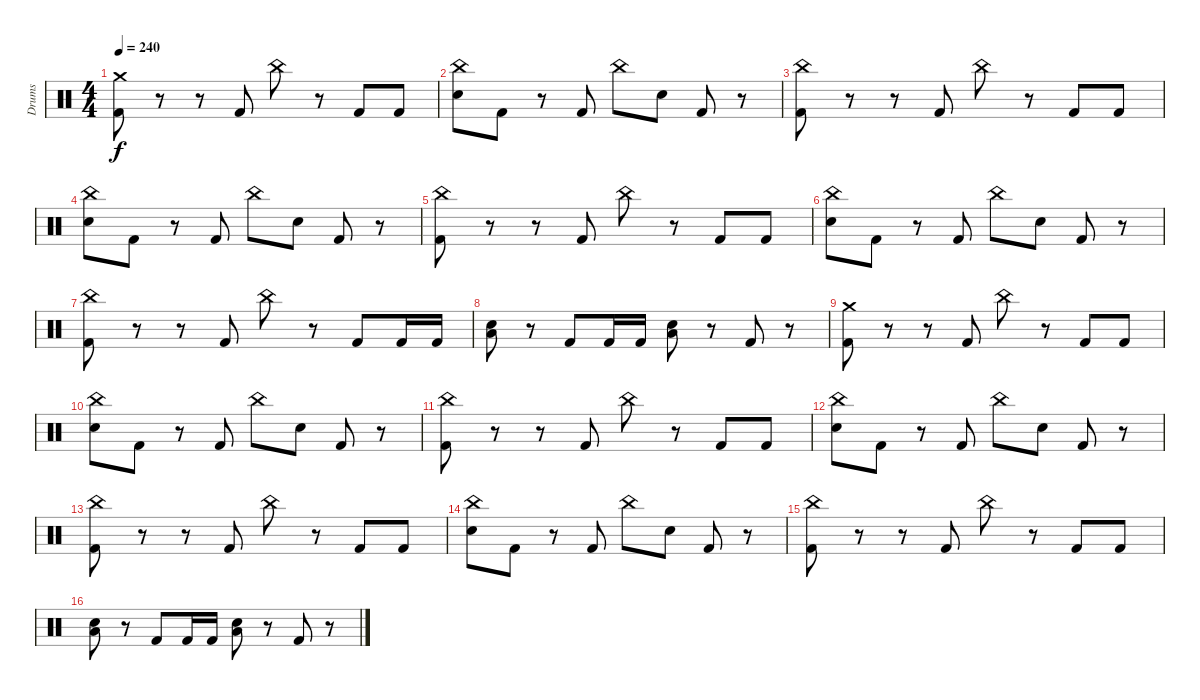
\track ("Drums" "Drums") {instrument percussion}
\staff {score}
\articulation defaults
\ts (4 4)
\tempo 240
\clef neutral
\ks c
("Kick (hit) 2" "Crash medium (hit)").8{dy f} r.8 r.8 "Kick (hit) 2".8 "China (hit)".8 r.8 "Kick (hit) 2".8 "Kick (hit) 2".8 |
("Electric Snare (hit)" "China (hit)").8 "Kick (hit) 2".8 r.8 "Kick (hit) 2".8 "China (hit)".8 "Electric Snare (hit)".8 "Kick (hit) 2".8 r.8 |
("Kick (hit) 2" "China (hit)").8 r.8 r.8 "Kick (hit) 2".8 "China (hit)".8 r.8 "Kick (hit) 2".8 "Kick (hit) 2".8 |
("Electric Snare (hit)" "China (hit)").8 "Kick (hit) 2".8 r.8 "Kick (hit) 2".8 "China (hit)".8 "Electric Snare (hit)".8 "Kick (hit) 2".8 r.8 |
("Kick (hit) 2" "China (hit)").8 r.8 r.8 "Kick (hit) 2".8 "China (hit)".8 r.8 "Kick (hit) 2".8 "Kick (hit) 2".8 |
("Electric Snare (hit)" "China (hit)").8 "Kick (hit) 2".8 r.8 "Kick (hit) 2".8 "China (hit)".8 "Electric Snare (hit)".8 "Kick (hit) 2".8 r.8 |
("Kick (hit) 2" "China (hit)").8 r.8 r.8 "Kick (hit) 2".8 "China (hit)".8 r.8 "Kick (hit) 2".8 "Kick (hit) 2".16 "Kick (hit) 2".16 |
("Electric Snare (hit)" "Low Tom (hit)").8 r.8 "Kick (hit) 2".8 "Kick (hit) 2".16 "Kick (hit) 2".16 ("Electric Snare (hit)" "Low Tom (hit)").8 r.8 "Kick (hit) 2".8 r.8 |
("Kick (hit) 2" "Crash medium (hit)").8 r.8 r.8 "Kick (hit) 2".8 "China (hit)".8 r.8 "Kick (hit) 2".8 "Kick (hit) 2".8 |
("Electric Snare (hit)" "China (hit)").8 "Kick (hit) 2".8 r.8 "Kick (hit) 2".8 "China (hit)".8 "Electric Snare (hit)".8 "Kick (hit) 2".8 r.8 |
("Kick (hit) 2" "China (hit)").8 r.8 r.8 "Kick (hit) 2".8 "China (hit)".8 r.8 "Kick (hit) 2".8 "Kick (hit) 2".8 |
("Electric Snare (hit)" "China (hit)").8 "Kick (hit) 2".8 r.8 "Kick (hit) 2".8 "China (hit)".8 "Electric Snare (hit)".8 "Kick (hit) 2".8 r.8 |
("Kick (hit) 2" "China (hit)").8 r.8 r.8 "Kick (hit) 2".8 "China (hit)".8 r.8 "Kick (hit) 2".8 "Kick (hit) 2".8 |
("Electric Snare (hit)" "China (hit)").8 "Kick (hit) 2".8 r.8 "Kick (hit) 2".8 "China (hit)".8 "Electric Snare (hit)".8 "Kick (hit) 2".8 r.8 |
("Kick (hit) 2" "China (hit)").8 r.8 r.8 "Kick (hit) 2".8 "China (hit)".8 r.8 "Kick (hit) 2".8 "Kick (hit) 2".8 |
("Electric Snare (hit)" "Low Tom (hit)").8 r.8 "Kick (hit) 2".8 "Kick (hit) 2".16 "Kick (hit) 2".16 ("Electric Snare (hit)" "Low Tom (hit)").8 r.8 "Kick (hit) 2".8 r.8
